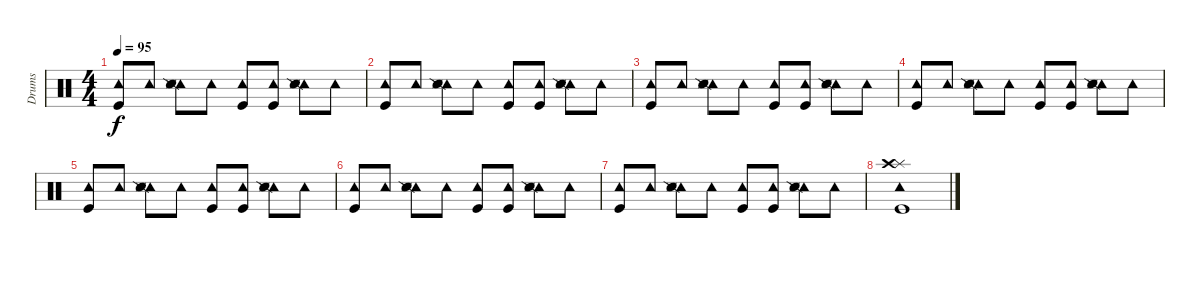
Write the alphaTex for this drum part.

\track ("Drums" "Drums") {instrument percussion}
\staff {score}
\articulation defaults
\ts (4 4)
\tempo 95
\clef neutral
\ks c
("Tambourine (hit)" "Kick (hit)").8{dy f} "Tambourine (hit)".8 ("Tambourine (hit)" "Snare (side stick) 3" "Snare (side stick) 2").8 "Tambourine (hit)".8 ("Tambourine (hit)" "Kick (hit)").8 ("Tambourine (hit)" "Kick (hit)").8 ("Tambourine (hit)" "Snare (side stick) 3" "Snare (side stick) 2").8 "Tambourine (hit)".8 |
("Tambourine (hit)" "Kick (hit)").8 "Tambourine (hit)".8 ("Tambourine (hit)" "Snare (side stick) 3" "Snare (side stick) 2").8 "Tambourine (hit)".8 ("Tambourine (hit)" "Kick (hit)").8 ("Tambourine (hit)" "Kick (hit)").8 ("Tambourine (hit)" "Snare (side stick) 3" "Snare (side stick) 2").8 "Tambourine (hit)".8 |
("Tambourine (hit)" "Kick (hit)").8 "Tambourine (hit)".8 ("Tambourine (hit)" "Snare (side stick) 3" "Snare (side stick) 2").8 "Tambourine (hit)".8 ("Tambourine (hit)" "Kick (hit)").8 ("Tambourine (hit)" "Kick (hit)").8 ("Tambourine (hit)" "Snare (side stick) 3" "Snare (side stick) 2").8 "Tambourine (hit)".8 |
("Tambourine (hit)" "Kick (hit)").8 "Tambourine (hit)".8 ("Tambourine (hit)" "Snare (side stick) 3" "Snare (side stick) 2").8 "Tambourine (hit)".8 ("Tambourine (hit)" "Kick (hit)").8 ("Tambourine (hit)" "Kick (hit)").8 ("Tambourine (hit)" "Snare (side stick) 3" "Snare (side stick) 2").8 "Tambourine (hit)".8 |
("Tambourine (hit)" "Kick (hit)").8 "Tambourine (hit)".8 ("Tambourine (hit)" "Snare (side stick) 3" "Snare (side stick) 2").8 "Tambourine (hit)".8 ("Tambourine (hit)" "Kick (hit)").8 ("Tambourine (hit)" "Kick (hit)").8 ("Tambourine (hit)" "Snare (side stick) 3" "Snare (side stick) 2").8 "Tambourine (hit)".8 |
("Tambourine (hit)" "Kick (hit)").8 "Tambourine (hit)".8 ("Tambourine (hit)" "Snare (side stick) 3" "Snare (side stick) 2").8 "Tambourine (hit)".8 ("Tambourine (hit)" "Kick (hit)").8 ("Tambourine (hit)" "Kick (hit)").8 ("Tambourine (hit)" "Snare (side stick) 3" "Snare (side stick) 2").8 "Tambourine (hit)".8 |
("Tambourine (hit)" "Kick (hit)").8 "Tambourine (hit)".8 ("Tambourine (hit)" "Snare (side stick) 3" "Snare (side stick) 2").8 "Tambourine (hit)".8 ("Tambourine (hit)" "Kick (hit)").8 ("Tambourine (hit)" "Kick (hit)").8 ("Tambourine (hit)" "Snare (side stick) 3" "Snare (side stick) 2").8 "Tambourine (hit)".8 |
("Tambourine (hit)" "Splash (hit)" "Crash high (hit)" "Kick (hit)").1
